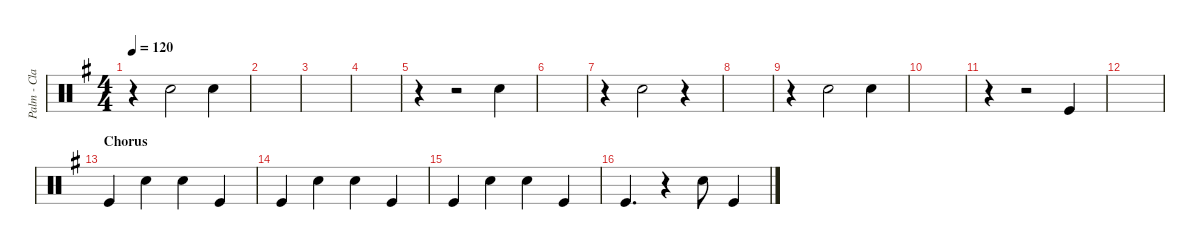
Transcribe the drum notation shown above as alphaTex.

\defaultSystemsLayout 4
\hideDynamics
\bracketExtendMode nobrackets
\otherSystemsTrackNameOrientation horizontal
\track ("Palm - Clap" "Palm - Cla") {defaultSystemsLayout 2 instrument percussion}
\staff {score}
\articulation defaults
\ts (4 4)
\tempo 120
\clef neutral
\ks g
r.4{dy mp} "Hand Clap (hit)"{acc forcenatural}.2 "Hand Clap (hit)"{acc forcenatural}.4 |
|
|
|
r.4 r.2 "Hand Clap (hit)"{acc forcenatural}.4 |
|
r.4 "Hand Clap (hit)"{acc forcenatural}.2 r.4 |
|
r.4 "Hand Clap (hit)"{acc forcenatural}.2 "Hand Clap (hit)"{acc forcenatural}.4 |
|
r.4 r.2 "Kick (hit)"{acc forcenatural}.4 |
|
\section ("" "Chorus")
"Kick (hit)"{acc forcenatural}.4 "Hand Clap (hit)"{acc forcenatural}.4 "Hand Clap (hit)"{acc forcenatural}.4 "Kick (hit)"{acc forcenatural}.4 |
"Kick (hit)"{acc forcenatural}.4 "Hand Clap (hit)"{acc forcenatural}.4 "Hand Clap (hit)"{acc forcenatural}.4 "Kick (hit)"{acc forcenatural}.4 |
"Kick (hit)"{acc forcenatural}.4 "Hand Clap (hit)"{acc forcenatural}.4 "Hand Clap (hit)"{acc forcenatural}.4 "Kick (hit)"{acc forcenatural}.4 |
"Kick (hit)"{acc forcenatural}.4{d} r.4 "Hand Clap (hit)"{acc forcenatural}.8 "Kick (hit)"{acc forcenatural}.4
